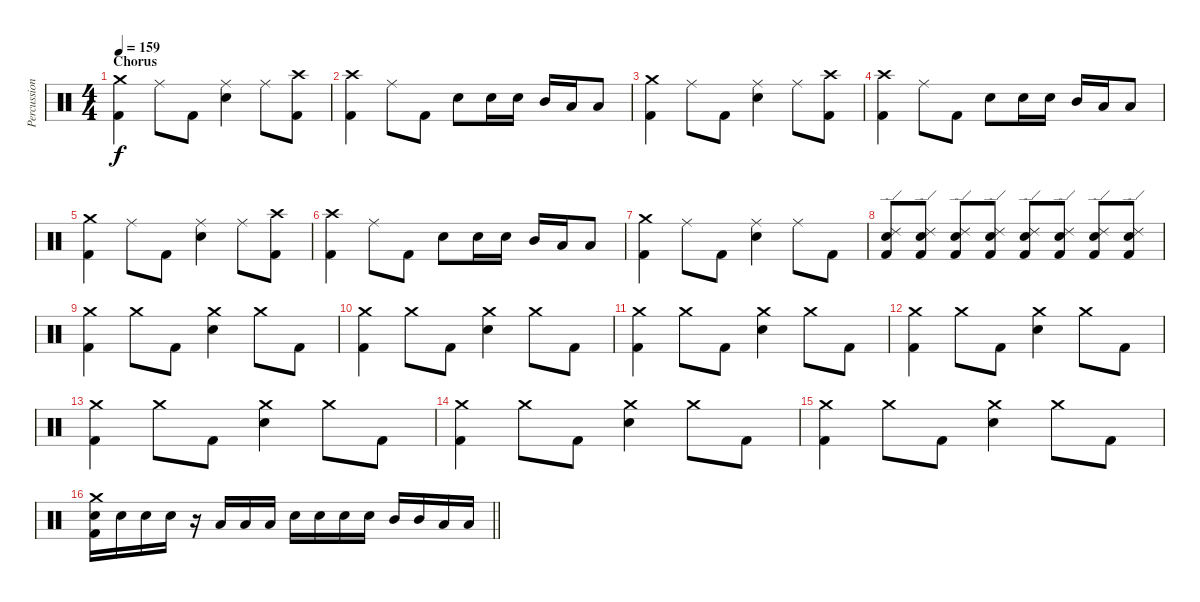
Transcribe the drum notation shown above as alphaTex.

\track ("Percussion" "Percussion") {instrument percussion}
\staff {score}
\articulation defaults
\ts (4 4)
\section ("" "Chorus")
\tempo 159
\clef neutral
\ks c
("Crash medium (hit)" "Kick (hit) 2").4{dy f} "Ride (middle)".8 "Kick (hit) 2".8 ("Ride (middle)" "Electric Snare (hit)").4 "Ride (middle)".8 ("Crash high (hit)" "Kick (hit) 2").8 |
("Crash high (hit)" "Kick (hit) 2").4 "Ride (middle)".8 "Kick (hit) 2".8 "Electric Snare (hit)".8 "Electric Snare (hit)".16 "Electric Snare (hit)".16 "Mid Tom (hit)".16 "Low Tom (hit)".16 "Low Tom (hit)".8 |
("Crash medium (hit)" "Kick (hit) 2").4 "Ride (middle)".8 "Kick (hit) 2".8 ("Ride (middle)" "Electric Snare (hit)").4 "Ride (middle)".8 ("Crash high (hit)" "Kick (hit) 2").8 |
("Crash high (hit)" "Kick (hit) 2").4 "Ride (middle)".8 "Kick (hit) 2".8 "Electric Snare (hit)".8 "Electric Snare (hit)".16 "Electric Snare (hit)".16 "Mid Tom (hit)".16 "Low Tom (hit)".16 "Low Tom (hit)".8 |
("Crash medium (hit)" "Kick (hit) 2").4 "Ride (middle)".8 "Kick (hit) 2".8 ("Ride (middle)" "Electric Snare (hit)").4 "Ride (middle)".8 ("Crash high (hit)" "Kick (hit) 2").8 |
("Crash high (hit)" "Kick (hit) 2").4 "Ride (middle)".8 "Kick (hit) 2".8 "Electric Snare (hit)".8 "Electric Snare (hit)".16 "Electric Snare (hit)".16 "Mid Tom (hit)".16 "Low Tom (hit)".16 "Low Tom (hit)".8 |
("Crash medium (hit)" "Kick (hit) 2").4 "Ride (middle)".8 "Kick (hit) 2".8 ("Ride (middle)" "Electric Snare (hit)").4 "Ride (middle)".8 "Kick (hit) 2".8 |
("Ride (edge) 2" "Electric Snare (hit)" "Kick (hit) 2").8 ("Ride (edge) 2" "Electric Snare (hit)" "Kick (hit) 2").8 ("Ride (edge) 2" "Electric Snare (hit)" "Kick (hit) 2").8 ("Ride (edge) 2" "Electric Snare (hit)" "Kick (hit) 2").8 ("Ride (edge) 2" "Electric Snare (hit)" "Kick (hit) 2").8 ("Ride (edge) 2" "Electric Snare (hit)" "Kick (hit) 2").8 ("Ride (edge) 2" "Electric Snare (hit)" "Kick (hit) 2").8 ("Ride (edge) 2" "Electric Snare (hit)" "Kick (hit) 2").8 |
("Crash medium (hit)" "Kick (hit) 2").4 "Crash medium (hit)".8 "Kick (hit) 2".8 ("Crash medium (hit)" "Electric Snare (hit)").4 "Crash medium (hit)".8 "Kick (hit) 2".8 |
("Crash medium (hit)" "Kick (hit) 2").4 "Crash medium (hit)".8 "Kick (hit) 2".8 ("Crash medium (hit)" "Electric Snare (hit)").4 "Crash medium (hit)".8 "Kick (hit) 2".8 |
("Crash medium (hit)" "Kick (hit) 2").4 "Crash medium (hit)".8 "Kick (hit) 2".8 ("Crash medium (hit)" "Electric Snare (hit)").4 "Crash medium (hit)".8 "Kick (hit) 2".8 |
("Crash medium (hit)" "Kick (hit) 2").4 "Crash medium (hit)".8 "Kick (hit) 2".8 ("Crash medium (hit)" "Electric Snare (hit)").4 "Crash medium (hit)".8 "Kick (hit) 2".8 |
("Crash medium (hit)" "Kick (hit) 2").4 "Crash medium (hit)".8 "Kick (hit) 2".8 ("Crash medium (hit)" "Electric Snare (hit)").4 "Crash medium (hit)".8 "Kick (hit) 2".8 |
("Crash medium (hit)" "Kick (hit) 2").4 "Crash medium (hit)".8 "Kick (hit) 2".8 ("Crash medium (hit)" "Electric Snare (hit)").4 "Crash medium (hit)".8 "Kick (hit) 2".8 |
("Crash medium (hit)" "Kick (hit) 2").4 "Crash medium (hit)".8 "Kick (hit) 2".8 ("Crash medium (hit)" "Electric Snare (hit)").4 "Crash medium (hit)".8 "Kick (hit) 2".8 |
\barLineRight lightlight
("Crash medium (hit)" "Electric Snare (hit)" "Kick (hit) 2").16 "Electric Snare (hit)".16 "Electric Snare (hit)".16 "Electric Snare (hit)".16 r.16 "Low Tom (hit)".16 "Low Tom (hit)".16 "Low Tom (hit)".16 "Electric Snare (hit)".16 "Electric Snare (hit)".16 "Electric Snare (hit)".16 "Electric Snare (hit)".16 "Mid Tom (hit)".16 "Mid Tom (hit)".16 "Low Tom (hit)".16 "Low Tom (hit)".16
